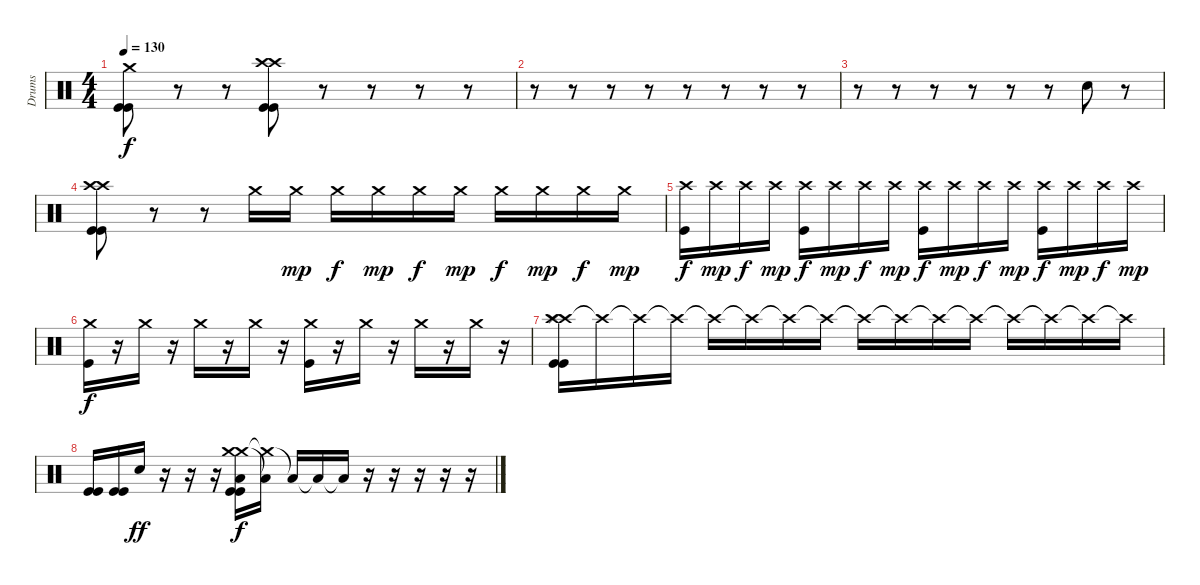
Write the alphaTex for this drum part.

\track ("Drums" "Drums") {instrument percussion}
\staff {score}
\articulation defaults
\ts (4 4)
\tempo 130
\clef neutral
\ks c
("Crash medium (hit)" "Kick (hit)" "Kick (hit)").8{dy f} r.8 r.8 ("Crash high (hit)" "Crash high (hit)" "Kick (hit)" "Kick (hit)").8 r.8 r.8 r.8 r.8 |
r.8 r.8 r.8 r.8 r.8 r.8 r.8 r.8 |
r.8 r.8 r.8 r.8 r.8 r.8 "Snare (hit) 2".8 r.8 |
("Crash high (hit)" "Crash high (hit)" "Kick (hit)" "Kick (hit)").8 r.8 r.8 "Crash medium (hit)".16 "Crash medium (hit)".16{dy mp} "Crash medium (hit)".16{dy f} "Crash medium (hit)".16{dy mp} "Crash medium (hit)".16{dy f} "Crash medium (hit)".16{dy mp} "Crash medium (hit)".16{dy f} "Crash medium (hit)".16{dy mp} "Crash medium (hit)".16{dy f} "Crash medium (hit)".16{dy mp} |
("Crash high (hit)" "Kick (hit)").16{dy f} "Crash high (hit)".16{dy mp} "Crash high (hit)".16{dy f} "Crash high (hit)".16{dy mp} ("Crash high (hit)" "Kick (hit)").16{dy f} "Crash high (hit)".16{dy mp} "Crash high (hit)".16{dy f} "Crash high (hit)".16{dy mp} ("Crash high (hit)" "Kick (hit)").16{dy f} "Crash high (hit)".16{dy mp} "Crash high (hit)".16{dy f} "Crash high (hit)".16{dy mp} ("Crash high (hit)" "Kick (hit)").16{dy f} "Crash high (hit)".16{dy mp} "Crash high (hit)".16{dy f} "Crash high (hit)".16{dy mp} |
("Crash medium (hit)" "Kick (hit)").16{dy f} r.16 "Crash medium (hit)".16 r.16 "Crash medium (hit)".16 r.16 "Crash medium (hit)".16 r.16 ("Crash medium (hit)" "Kick (hit)").16 r.16 "Crash medium (hit)".16 r.16 "Crash medium (hit)".16 r.16 "Crash medium (hit)".16 r.16 |
("Crash high (hit)" "Crash high (hit)" "Splash (hit)" "Kick (hit)" "Kick (hit)").16 "Crash high (hit)"{t}.16 "Crash high (hit)"{t}.16 "Crash high (hit)"{t}.16 "Crash high (hit)"{t}.16 "Crash high (hit)"{t}.16 "Crash high (hit)"{t}.16 "Crash high (hit)"{t}.16 "Crash high (hit)"{t}.16 "Crash high (hit)"{t}.16 "Crash high (hit)"{t}.16 "Crash high (hit)"{t}.16 "Crash high (hit)"{t}.16 "Crash high (hit)"{t}.16 "Crash high (hit)"{t}.16 "Crash high (hit)"{t}.16 |
("Kick (hit)" "Kick (hit)").16 ("Kick (hit)" "Kick (hit)").16 "Snare (hit) 2".16{dy ff} r.16 r.16 r.16 ("Crash medium (hit)" "Crash medium (hit)" "Low Floor Tom (hit)" "Kick (hit)" "Kick (hit)").16{dy f} ("Crash medium (hit)"{t} "Low Floor Tom (hit)"{t}).16 "Low Floor Tom (hit)"{t}.16 "Low Floor Tom (hit)"{t}.16 "Low Floor Tom (hit)"{t}.16 r.16 r.16 r.16 r.16 r.16
